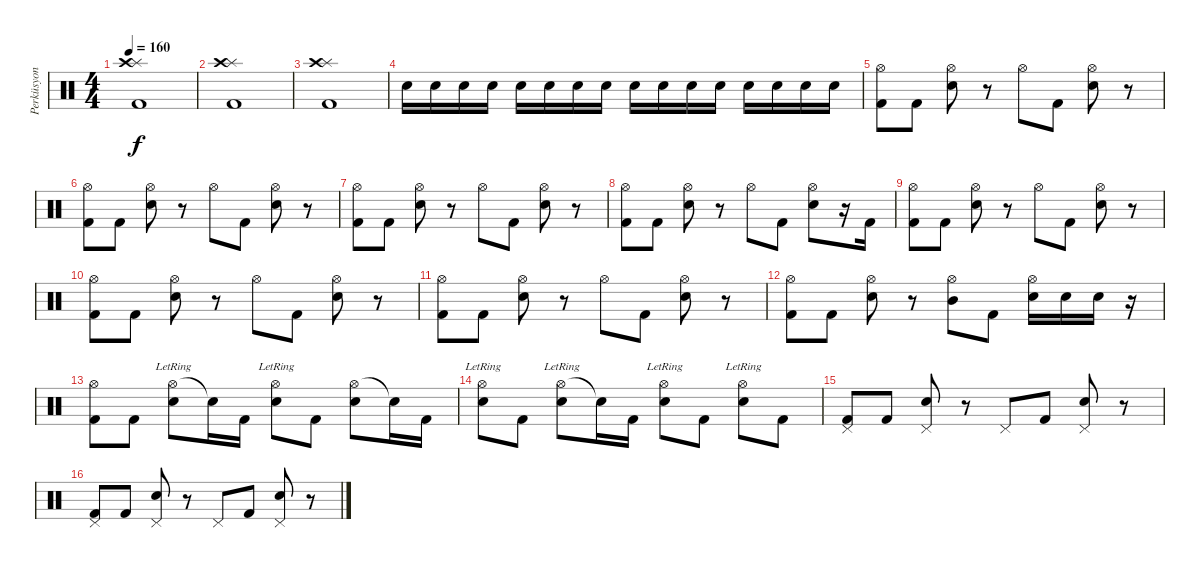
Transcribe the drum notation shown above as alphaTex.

\track ("Perküsyon" "Perküsyon") {instrument percussion}
\staff {score}
\articulation defaults
\ts (4 4)
\tempo 160
\clef neutral
\ks c
("Splash (hit)" "Crash high (hit)" "Kick (hit) 2").1{dy f} |
("Splash (hit)" "Crash high (hit)" "Kick (hit) 2").1 |
("Splash (hit)" "Crash high (hit)" "Kick (hit) 2").1 |
"Electric Snare (hit)".16 "Electric Snare (hit)".16 "Electric Snare (hit)".16 "Electric Snare (hit)".16 "Electric Snare (hit)".16 "Electric Snare (hit)".16 "Electric Snare (hit)".16 "Electric Snare (hit)".16 "Electric Snare (hit)".16 "Electric Snare (hit)".16 "Electric Snare (hit)".16 "Electric Snare (hit)".16 "Electric Snare (hit)".16 "Electric Snare (hit)".16 "Electric Snare (hit)".16 "Electric Snare (hit)".16 |
("Hi-Hat (open)" "Kick (hit) 2").8 "Kick (hit) 2".8 ("Hi-Hat (open)" "Electric Snare (hit)").8 r.8 "Hi-Hat (open)".8 "Kick (hit) 2".8 ("Hi-Hat (open)" "Electric Snare (hit)").8 r.8 |
("Hi-Hat (open)" "Kick (hit) 2").8 "Kick (hit) 2".8 ("Hi-Hat (open)" "Electric Snare (hit)").8 r.8 "Hi-Hat (open)".8 "Kick (hit) 2".8 ("Hi-Hat (open)" "Electric Snare (hit)").8 r.8 |
("Hi-Hat (open)" "Kick (hit) 2").8 "Kick (hit) 2".8 ("Hi-Hat (open)" "Electric Snare (hit)").8 r.8 "Hi-Hat (open)".8 "Kick (hit) 2".8 ("Hi-Hat (open)" "Electric Snare (hit)").8 r.8 |
("Hi-Hat (open)" "Kick (hit) 2").8 "Kick (hit) 2".8 ("Hi-Hat (open)" "Electric Snare (hit)").8 r.8 "Hi-Hat (open)".8 "Kick (hit) 2".8 ("Hi-Hat (open)" "Electric Snare (hit)").8 r.16 "Kick (hit) 2".16 |
("Hi-Hat (open)" "Kick (hit) 2").8 "Kick (hit) 2".8 ("Hi-Hat (open)" "Electric Snare (hit)").8 r.8 "Hi-Hat (open)".8 "Kick (hit) 2".8 ("Hi-Hat (open)" "Electric Snare (hit)").8 r.8 |
("Hi-Hat (open)" "Kick (hit) 2").8 "Kick (hit) 2".8 ("Hi-Hat (open)" "Electric Snare (hit)").8 r.8 "Hi-Hat (open)".8 "Kick (hit) 2".8 ("Hi-Hat (open)" "Electric Snare (hit)").8 r.8 |
("Hi-Hat (open)" "Kick (hit) 2").8 "Kick (hit) 2".8 ("Hi-Hat (open)" "Electric Snare (hit)").8 r.8 "Hi-Hat (open)".8 "Kick (hit) 2".8 ("Hi-Hat (open)" "Electric Snare (hit)").8 r.8 |
("Hi-Hat (open)" "Kick (hit) 2").8 "Kick (hit) 2".8 ("Hi-Hat (open)" "Electric Snare (hit)").8 r.8 ("Hi-Hat (open)" "Mid Tom (hit)").8 "Kick (hit) 2".8 ("Hi-Hat (open)" "Electric Snare (hit)").16 "Electric Snare (hit)".16 "Electric Snare (hit)".16 r.16 |
("Hi-Hat (open)" "Kick (hit) 2").8 "Kick (hit) 2".8 ("Hi-Hat (open)" "Electric Snare (hit)"{lr}).8 "Snare (hit)"{t}.16 "Kick (hit) 2".16 ("Hi-Hat (open)" "Electric Snare (hit)"{lr}).8 "Kick (hit) 2".8 ("Hi-Hat (open)" "Electric Snare (hit)").8 "Snare (hit)"{t}.16 "Kick (hit) 2".16 |
("Hi-Hat (open)" "Electric Snare (hit)"{lr}).8 "Kick (hit) 2".8 ("Hi-Hat (open)" "Electric Snare (hit)"{lr}).8 "Snare (hit)"{t}.16 "Kick (hit) 2".16 ("Hi-Hat (open)" "Electric Snare (hit)"{lr}).8 "Kick (hit) 2".8 ("Hi-Hat (open)" "Electric Snare (hit)"{lr}).8 "Kick (hit) 2".8 |
("Pedal Hi-Hat (hit)" "Kick (hit) 2").8 "Kick (hit) 2".8 ("Pedal Hi-Hat (hit)" "Electric Snare (hit)").8 r.8 "Pedal Hi-Hat (hit)".8 "Kick (hit) 2".8 ("Pedal Hi-Hat (hit)" "Electric Snare (hit)").8 r.8 |
("Pedal Hi-Hat (hit)" "Kick (hit) 2").8 "Kick (hit) 2".8 ("Pedal Hi-Hat (hit)" "Electric Snare (hit)").8 r.8 "Pedal Hi-Hat (hit)".8 "Kick (hit) 2".8 ("Pedal Hi-Hat (hit)" "Electric Snare (hit)").8 r.8
